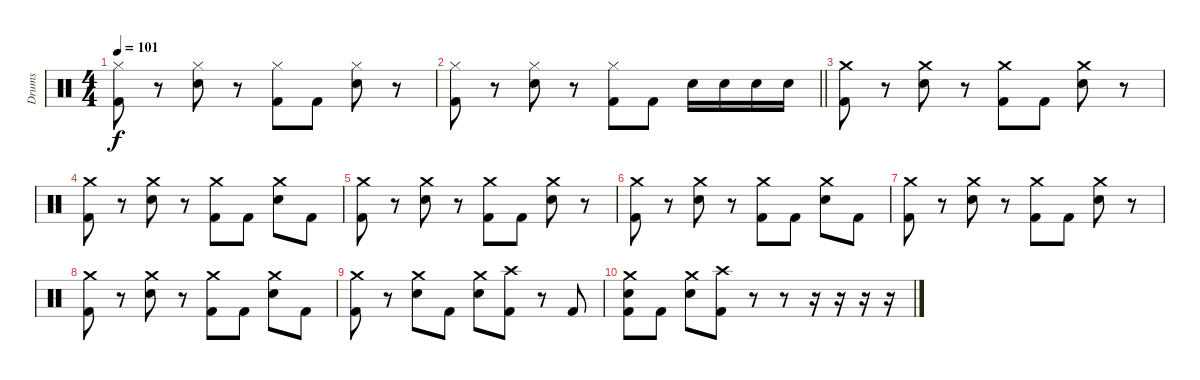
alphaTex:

\track ("Drums" "Drums") {instrument percussion}
\staff {score}
\articulation defaults
\ts (4 4)
\tempo 101
\clef neutral
\ks c
("Hi-Hat (closed)" "Kick (hit) 2").8{dy f} r.8 ("Hi-Hat (closed)" "Snare (hit) 2").8 r.8 ("Hi-Hat (closed)" "Kick (hit) 2").8 "Kick (hit) 2".8 ("Hi-Hat (closed)" "Snare (hit) 2").8 r.8 |
\barLineRight lightlight
("Hi-Hat (closed)" "Kick (hit) 2").8 r.8 ("Hi-Hat (closed)" "Snare (hit) 2").8 r.8 ("Hi-Hat (closed)" "Kick (hit) 2").8 "Kick (hit) 2".8 "Snare (hit) 2".16 "Snare (hit) 2".16 "Snare (hit) 2".16 "Snare (hit) 2".16 |
("Crash medium (hit)" "Kick (hit) 2").8 r.8 ("Crash medium (hit)" "Snare (hit) 2").8 r.8 ("Crash medium (hit)" "Kick (hit) 2").8 "Kick (hit) 2".8 ("Crash medium (hit)" "Snare (hit) 2").8 r.8 |
("Crash medium (hit)" "Kick (hit) 2").8 r.8 ("Crash medium (hit)" "Snare (hit) 2").8 r.8 ("Crash medium (hit)" "Kick (hit) 2").8 "Kick (hit) 2".8 ("Crash medium (hit)" "Snare (hit) 2").8 "Kick (hit) 2".8 |
("Crash medium (hit)" "Kick (hit) 2").8 r.8 ("Crash medium (hit)" "Snare (hit) 2").8 r.8 ("Crash medium (hit)" "Kick (hit) 2").8 "Kick (hit) 2".8 ("Crash medium (hit)" "Snare (hit) 2").8 r.8 |
("Crash medium (hit)" "Kick (hit) 2").8 r.8 ("Crash medium (hit)" "Snare (hit) 2").8 r.8 ("Crash medium (hit)" "Kick (hit) 2").8 "Kick (hit) 2".8 ("Crash medium (hit)" "Snare (hit) 2").8 "Kick (hit) 2".8 |
("Crash medium (hit)" "Kick (hit) 2").8 r.8 ("Crash medium (hit)" "Snare (hit) 2").8 r.8 ("Crash medium (hit)" "Kick (hit) 2").8 "Kick (hit) 2".8 ("Crash medium (hit)" "Snare (hit) 2").8 r.8 |
("Crash medium (hit)" "Kick (hit) 2").8 r.8 ("Crash medium (hit)" "Snare (hit) 2").8 r.8 ("Crash medium (hit)" "Kick (hit) 2").8 "Kick (hit) 2".8 ("Crash medium (hit)" "Snare (hit) 2").8 "Kick (hit) 2".8 |
("Crash medium (hit)" "Kick (hit) 2").8 r.8 ("Crash medium (hit)" "Snare (hit) 2").8 "Kick (hit) 2".8 ("Crash medium (hit)" "Snare (hit) 2").8 ("Crash high (hit)" "Kick (hit) 2").8 r.8 "Kick (hit) 2".8 |
("Crash medium (hit)" "Snare (hit) 2" "Kick (hit) 2").8 "Kick (hit) 2".8 ("Crash medium (hit)" "Snare (hit) 2").8 ("Crash high (hit)" "Kick (hit) 2").8 r.8 r.8 r.16 r.16 r.16 r.16
